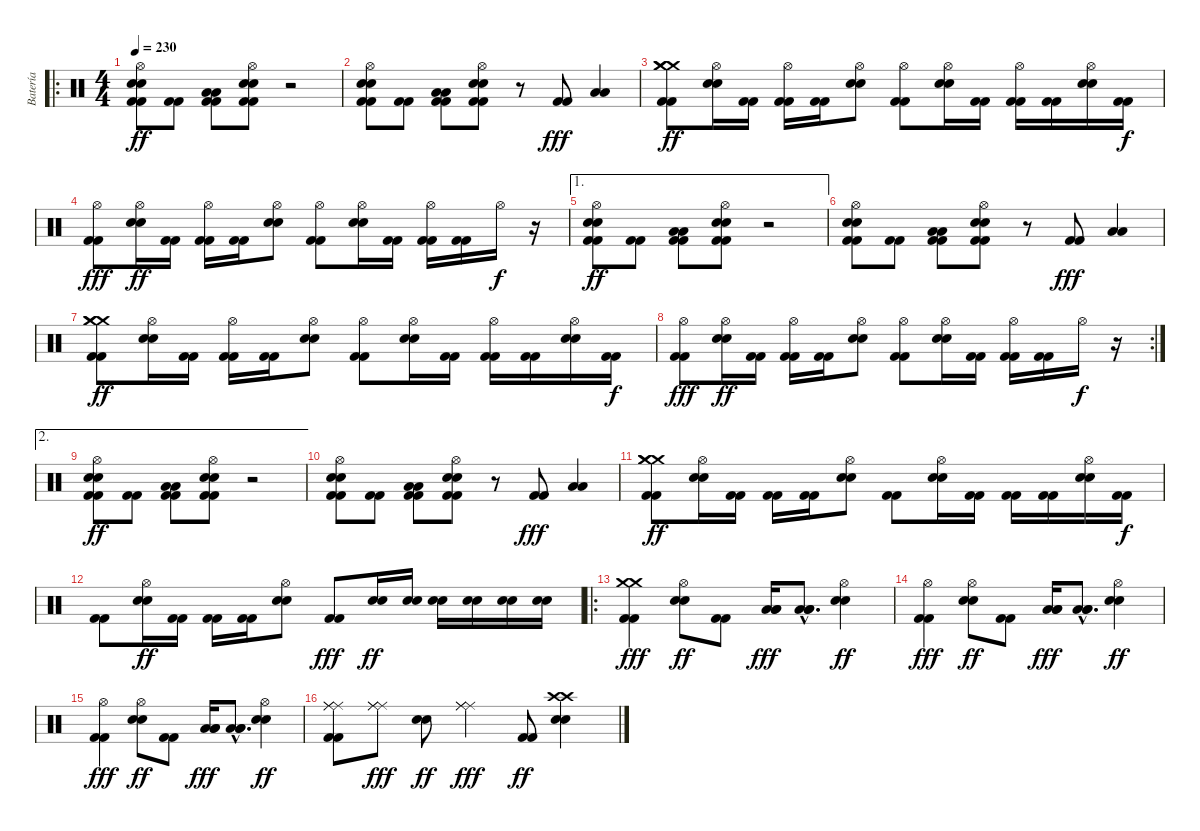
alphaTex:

\track ("Batería" "Batería") {instrument percussion}
\staff {score}
\articulation defaults
\ro
\ts (4 4)
\tempo 230
\clef neutral
\ks c
("Hi-Hat (open)" "Electric Snare (hit)" "Electric Snare (hit)" "Kick (hit) 2" "Kick (hit) 2").8{dy ff} ("Kick (hit) 2" "Kick (hit) 2").8 ("Low Tom (hit)" "Low Tom (hit)" "Kick (hit) 2" "Kick (hit) 2").8 ("Hi-Hat (open)" "Electric Snare (hit)" "Electric Snare (hit)" "Kick (hit) 2" "Kick (hit) 2").8 r.2 |
("Hi-Hat (open)" "Electric Snare (hit)" "Electric Snare (hit)" "Kick (hit) 2" "Kick (hit) 2").8 ("Kick (hit) 2" "Kick (hit) 2").8 ("Low Tom (hit)" "Low Tom (hit)" "Kick (hit) 2" "Kick (hit) 2").8 ("Hi-Hat (open)" "Electric Snare (hit)" "Electric Snare (hit)" "Kick (hit) 2" "Kick (hit) 2").8 r.8 ("Kick (hit) 2" "Kick (hit) 2").8{dy fff} ("Low Tom (hit)" "Low Tom (hit)").4 |
("Crash medium (hit)" "Crash medium (hit)" "Crash medium (hit)" "Kick (hit) 2" "Kick (hit) 2").8{dy ff} ("Hi-Hat (open)" "Electric Snare (hit)" "Electric Snare (hit)").16 ("Kick (hit) 2" "Kick (hit) 2").16 ("Hi-Hat (open)" "Kick (hit) 2" "Kick (hit) 2").16 ("Kick (hit) 2" "Kick (hit) 2").16 ("Hi-Hat (open)" "Electric Snare (hit)" "Electric Snare (hit)").8 ("Hi-Hat (open)" "Kick (hit) 2" "Kick (hit) 2").8 ("Hi-Hat (open)" "Electric Snare (hit)" "Electric Snare (hit)").16 ("Kick (hit) 2" "Kick (hit) 2").16 ("Hi-Hat (open)" "Kick (hit) 2" "Kick (hit) 2").16 ("Kick (hit) 2" "Kick (hit) 2").16 ("Hi-Hat (open)" "Electric Snare (hit)" "Electric Snare (hit)").16 ("Kick (hit) 2" "Kick (hit) 2").16{dy f} |
("Hi-Hat (open)" "Kick (hit) 2" "Kick (hit) 2").8{dy fff} ("Hi-Hat (open)" "Electric Snare (hit)" "Electric Snare (hit)").16{dy ff} ("Kick (hit) 2" "Kick (hit) 2").16 ("Hi-Hat (open)" "Kick (hit) 2" "Kick (hit) 2").16 ("Kick (hit) 2" "Kick (hit) 2").16 ("Hi-Hat (open)" "Electric Snare (hit)" "Electric Snare (hit)").8 ("Hi-Hat (open)" "Kick (hit) 2" "Kick (hit) 2").8 ("Hi-Hat (open)" "Electric Snare (hit)" "Electric Snare (hit)").16 ("Kick (hit) 2" "Kick (hit) 2").16 ("Hi-Hat (open)" "Kick (hit) 2" "Kick (hit) 2").16 ("Kick (hit) 2" "Kick (hit) 2").16 "Hi-Hat (open)".16{dy f} r.16 |
\ae 1
("Hi-Hat (open)" "Electric Snare (hit)" "Electric Snare (hit)" "Kick (hit) 2" "Kick (hit) 2").8{dy ff} ("Kick (hit) 2" "Kick (hit) 2").8 ("Low Tom (hit)" "Low Tom (hit)" "Kick (hit) 2" "Kick (hit) 2").8 ("Hi-Hat (open)" "Electric Snare (hit)" "Electric Snare (hit)" "Kick (hit) 2" "Kick (hit) 2").8 r.2 |
("Hi-Hat (open)" "Electric Snare (hit)" "Electric Snare (hit)" "Kick (hit) 2" "Kick (hit) 2").8 ("Kick (hit) 2" "Kick (hit) 2").8 ("Low Tom (hit)" "Low Tom (hit)" "Kick (hit) 2" "Kick (hit) 2").8 ("Hi-Hat (open)" "Electric Snare (hit)" "Electric Snare (hit)" "Kick (hit) 2" "Kick (hit) 2").8 r.8 ("Kick (hit) 2" "Kick (hit) 2").8{dy fff} ("Low Tom (hit)" "Low Tom (hit)").4 |
("Crash medium (hit)" "Crash medium (hit)" "Crash medium (hit)" "Kick (hit) 2" "Kick (hit) 2").8{dy ff} ("Hi-Hat (open)" "Electric Snare (hit)" "Electric Snare (hit)").16 ("Kick (hit) 2" "Kick (hit) 2").16 ("Hi-Hat (open)" "Kick (hit) 2" "Kick (hit) 2").16 ("Kick (hit) 2" "Kick (hit) 2").16 ("Hi-Hat (open)" "Electric Snare (hit)" "Electric Snare (hit)").8 ("Hi-Hat (open)" "Kick (hit) 2" "Kick (hit) 2").8 ("Hi-Hat (open)" "Electric Snare (hit)" "Electric Snare (hit)").16 ("Kick (hit) 2" "Kick (hit) 2").16 ("Hi-Hat (open)" "Kick (hit) 2" "Kick (hit) 2").16 ("Kick (hit) 2" "Kick (hit) 2").16 ("Hi-Hat (open)" "Electric Snare (hit)" "Electric Snare (hit)").16 ("Kick (hit) 2" "Kick (hit) 2").16{dy f} |
\rc 2
("Hi-Hat (open)" "Kick (hit) 2" "Kick (hit) 2").8{dy fff} ("Hi-Hat (open)" "Electric Snare (hit)" "Electric Snare (hit)").16{dy ff} ("Kick (hit) 2" "Kick (hit) 2").16 ("Hi-Hat (open)" "Kick (hit) 2" "Kick (hit) 2").16 ("Kick (hit) 2" "Kick (hit) 2").16 ("Hi-Hat (open)" "Electric Snare (hit)" "Electric Snare (hit)").8 ("Hi-Hat (open)" "Kick (hit) 2" "Kick (hit) 2").8 ("Hi-Hat (open)" "Electric Snare (hit)" "Electric Snare (hit)").16 ("Kick (hit) 2" "Kick (hit) 2").16 ("Hi-Hat (open)" "Kick (hit) 2" "Kick (hit) 2").16 ("Kick (hit) 2" "Kick (hit) 2").16 "Hi-Hat (open)".16{dy f} r.16 |
\ae 2
("Hi-Hat (open)" "Electric Snare (hit)" "Electric Snare (hit)" "Kick (hit) 2" "Kick (hit) 2").8{dy ff} ("Kick (hit) 2" "Kick (hit) 2").8 ("Low Tom (hit)" "Low Tom (hit)" "Kick (hit) 2" "Kick (hit) 2").8 ("Hi-Hat (open)" "Electric Snare (hit)" "Electric Snare (hit)" "Kick (hit) 2" "Kick (hit) 2").8 r.2 |
("Hi-Hat (open)" "Electric Snare (hit)" "Electric Snare (hit)" "Kick (hit) 2" "Kick (hit) 2").8 ("Kick (hit) 2" "Kick (hit) 2").8 ("Low Tom (hit)" "Low Tom (hit)" "Kick (hit) 2" "Kick (hit) 2").8 ("Hi-Hat (open)" "Electric Snare (hit)" "Electric Snare (hit)" "Kick (hit) 2" "Kick (hit) 2").8 r.8 ("Kick (hit) 2" "Kick (hit) 2").8{dy fff} ("Low Tom (hit)" "Low Tom (hit)").4 |
("Crash medium (hit)" "Crash medium (hit)" "Crash medium (hit)" "Kick (hit) 2" "Kick (hit) 2").8{dy ff} ("Hi-Hat (open)" "Electric Snare (hit)" "Electric Snare (hit)").16 ("Kick (hit) 2" "Kick (hit) 2").16 ("Kick (hit) 2" "Kick (hit) 2").16 ("Kick (hit) 2" "Kick (hit) 2").16 ("Hi-Hat (open)" "Electric Snare (hit)" "Electric Snare (hit)").8 ("Kick (hit) 2" "Kick (hit) 2").8 ("Hi-Hat (open)" "Electric Snare (hit)" "Electric Snare (hit)").16 ("Kick (hit) 2" "Kick (hit) 2").16 ("Kick (hit) 2" "Kick (hit) 2").16 ("Kick (hit) 2" "Kick (hit) 2").16 ("Hi-Hat (open)" "Electric Snare (hit)" "Electric Snare (hit)").16 ("Kick (hit) 2" "Kick (hit) 2").16{dy f} |
("Kick (hit) 2" "Kick (hit) 2").8 ("Hi-Hat (open)" "Electric Snare (hit)" "Electric Snare (hit)").16{dy ff} ("Kick (hit) 2" "Kick (hit) 2").16 ("Kick (hit) 2" "Kick (hit) 2").16 ("Kick (hit) 2" "Kick (hit) 2").16 ("Hi-Hat (open)" "Electric Snare (hit)" "Electric Snare (hit)").8 ("Kick (hit) 2" "Kick (hit) 2").8{dy fff} ("Electric Snare (hit)" "Electric Snare (hit)").16{dy ff} ("Electric Snare (hit)" "Electric Snare (hit)").16 ("Electric Snare (hit)" "Electric Snare (hit)").16 ("Electric Snare (hit)" "Electric Snare (hit)").16 ("Electric Snare (hit)" "Electric Snare (hit)").16 ("Electric Snare (hit)" "Electric Snare (hit)").16 |
\ro
("Crash medium (hit)" "Crash medium (hit)" "Kick (hit) 2" "Kick (hit) 2").4{dy fff} ("Hi-Hat (open)" "Electric Snare (hit)" "Electric Snare (hit)").8{dy ff} ("Kick (hit) 2" "Kick (hit) 2").8 ("Low Tom (hit)" "Low Floor Tom (hit)" "Low Floor Tom (hit)").16{dy fff} ("Low Tom (hit)"{hac} "Low Floor Tom (hit)"{hac} "Low Floor Tom (hit)"{hac}).8{d} ("Hi-Hat (open)" "Electric Snare (hit)" "Electric Snare (hit)").4{dy ff} |
("Hi-Hat (open)" "Kick (hit) 2" "Kick (hit) 2").4{dy fff} ("Hi-Hat (open)" "Electric Snare (hit)" "Electric Snare (hit)").8{dy ff} ("Kick (hit) 2" "Kick (hit) 2").8 ("Low Tom (hit)" "Low Floor Tom (hit)" "Low Floor Tom (hit)").16{dy fff} ("Low Tom (hit)"{hac} "Low Floor Tom (hit)"{hac} "Low Floor Tom (hit)"{hac}).8{d} ("Hi-Hat (open)" "Electric Snare (hit)" "Electric Snare (hit)").4{dy ff} |
("Hi-Hat (open)" "Kick (hit) 2" "Kick (hit) 2").4{dy fff} ("Hi-Hat (open)" "Electric Snare (hit)" "Electric Snare (hit)").8{dy ff} ("Kick (hit) 2" "Kick (hit) 2").8 ("Low Tom (hit)" "Low Floor Tom (hit)" "Low Floor Tom (hit)").16{dy fff} ("Low Tom (hit)"{hac} "Low Floor Tom (hit)"{hac} "Low Floor Tom (hit)"{hac}).8{d} ("Hi-Hat (open)" "Electric Snare (hit)" "Electric Snare (hit)").4{dy ff} |
("Ride (middle)" "Ride (middle)" "Ride (middle)" "Kick (hit) 2" "Kick (hit) 2").8 ("Ride (middle)" "Ride (middle)" "Ride (middle)").8{dy fff} ("Electric Snare (hit)" "Electric Snare (hit)").8{dy ff} ("Ride (middle)" "Ride (middle)" "Ride (middle)").4{dy fff} ("Kick (hit) 2" "Kick (hit) 2").8{dy ff} ("Crash high (hit)" "Crash high (hit)" "Electric Snare (hit)" "Electric Snare (hit)").4
